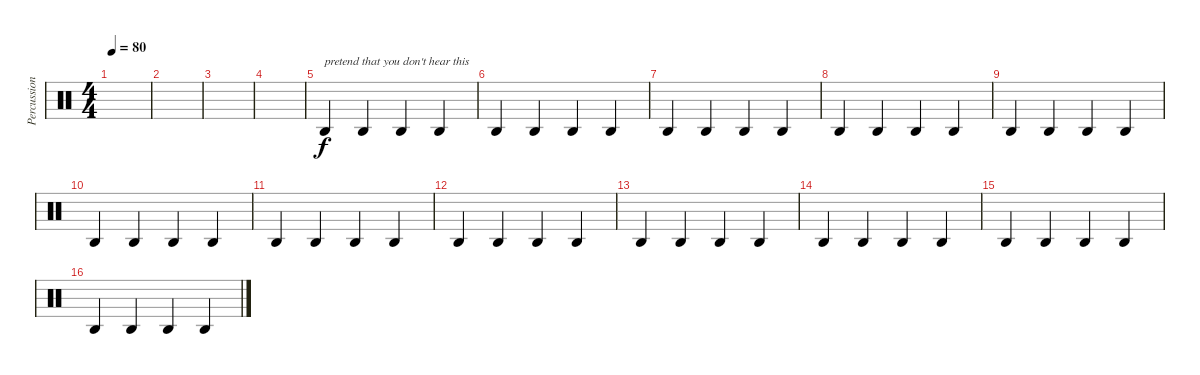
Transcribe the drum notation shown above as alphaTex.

\track ("Percussion" "Percussion") {instrument percussion}
\staff {score}
\articulation defaults
\ts (4 4)
\tempo 80
\clef neutral
\ks c
|
|
|
|
"Agogo high (hit)".4{txt "pretend that you don't hear this"} "Agogo high (hit)".4 "Agogo high (hit)".4 "Agogo high (hit)".4 |
"Agogo high (hit)".4 "Agogo high (hit)".4 "Agogo high (hit)".4 "Agogo high (hit)".4 |
"Agogo high (hit)".4 "Agogo high (hit)".4 "Agogo high (hit)".4 "Agogo high (hit)".4 |
"Agogo high (hit)".4 "Agogo high (hit)".4 "Agogo high (hit)".4 "Agogo high (hit)".4 |
"Agogo high (hit)".4 "Agogo high (hit)".4 "Agogo high (hit)".4 "Agogo high (hit)".4 |
"Agogo high (hit)".4 "Agogo high (hit)".4 "Agogo high (hit)".4 "Agogo high (hit)".4 |
"Agogo high (hit)".4 "Agogo high (hit)".4 "Agogo high (hit)".4 "Agogo high (hit)".4 |
"Agogo high (hit)".4 "Agogo high (hit)".4 "Agogo high (hit)".4 "Agogo high (hit)".4 |
"Agogo high (hit)".4 "Agogo high (hit)".4 "Agogo high (hit)".4 "Agogo high (hit)".4 |
"Agogo high (hit)".4 "Agogo high (hit)".4 "Agogo high (hit)".4 "Agogo high (hit)".4 |
"Agogo high (hit)".4 "Agogo high (hit)".4 "Agogo high (hit)".4 "Agogo high (hit)".4 |
"Agogo high (hit)".4 "Agogo high (hit)".4 "Agogo high (hit)".4 "Agogo high (hit)".4
